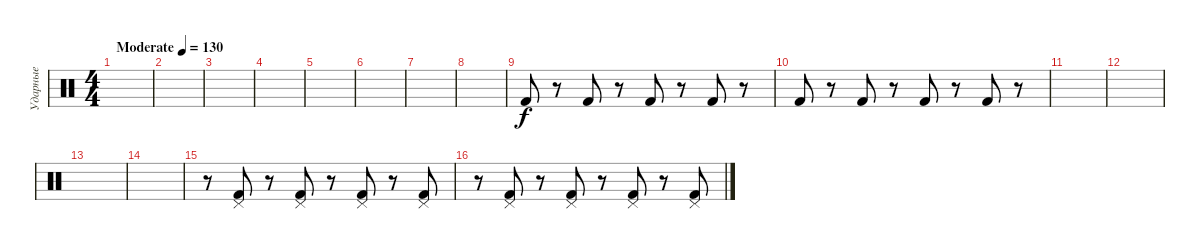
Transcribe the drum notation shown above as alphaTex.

\track ("Ударные" "Ударные") {instrument percussion}
\staff {score}
\articulation defaults
\ts (4 4)
\tempo (130 "Moderate")
\clef neutral
\ks c
|
|
|
|
|
|
|
|
"Kick (hit) 2".8 r.8 "Kick (hit) 2".8 r.8 "Kick (hit) 2".8 r.8 "Kick (hit) 2".8 r.8 |
"Kick (hit) 2".8 r.8 "Kick (hit) 2".8 r.8 "Kick (hit) 2".8 r.8 "Kick (hit) 2".8 r.8 |
|
|
|
|
r.8 ("Kick (hit) 2" "Pedal Hi-Hat (hit)").8 r.8 ("Kick (hit) 2" "Pedal Hi-Hat (hit)").8 r.8 ("Kick (hit) 2" "Pedal Hi-Hat (hit)").8 r.8 ("Kick (hit) 2" "Pedal Hi-Hat (hit)").8 |
r.8 ("Kick (hit) 2" "Pedal Hi-Hat (hit)").8 r.8 ("Kick (hit) 2" "Pedal Hi-Hat (hit)").8 r.8 ("Kick (hit) 2" "Pedal Hi-Hat (hit)").8 r.8 ("Kick (hit) 2" "Pedal Hi-Hat (hit)").8
